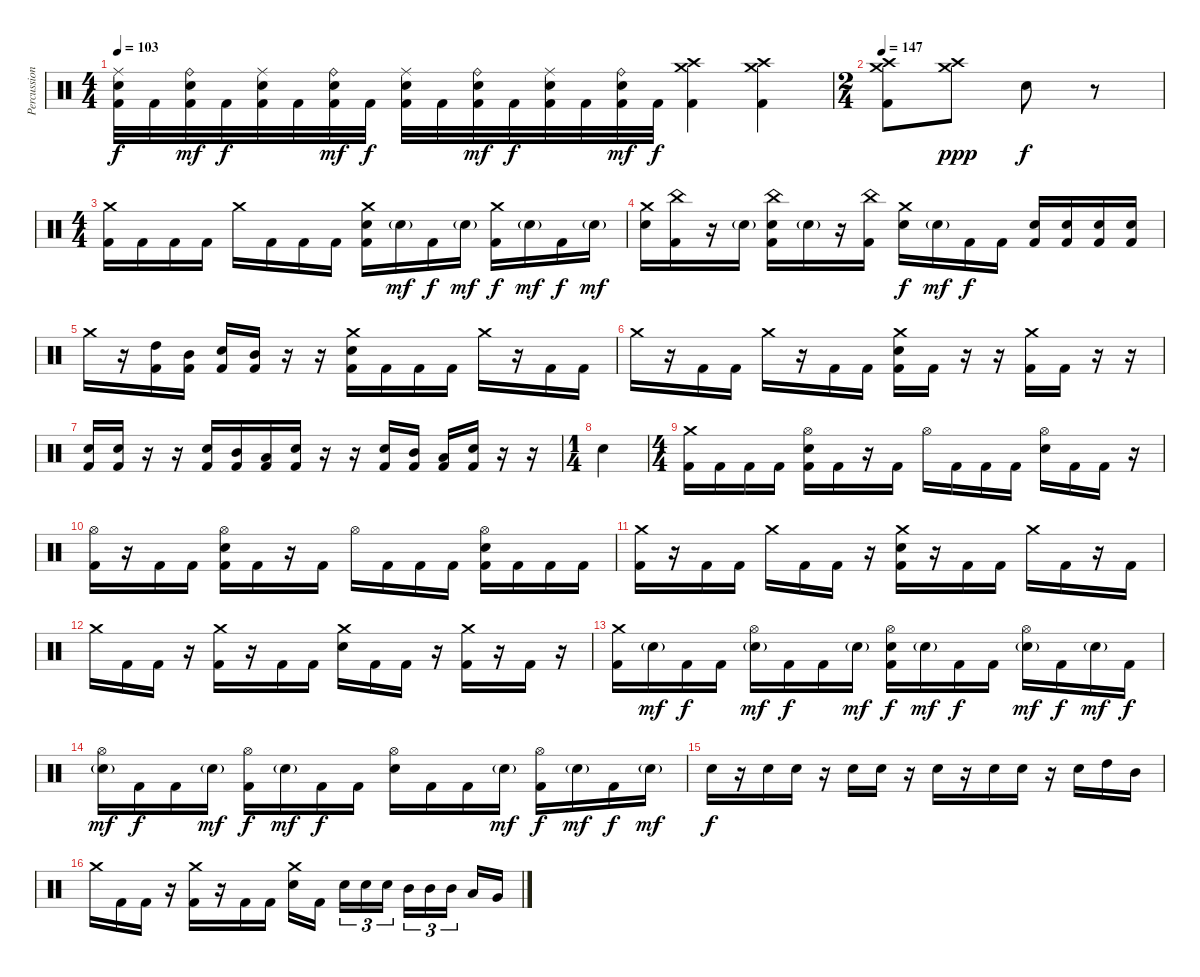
\track ("Percussion" "Percussion") {instrument percussion}
\staff {score}
\articulation defaults
\ts (4 4)
\tempo 103
\clef neutral
\ks c
("Ride (middle)" "Electric Snare (hit)" "Kick (hit) 2").32{dy f} "Kick (hit) 2".32 ("Ride (bell)" "Electric Snare (hit)" "Kick (hit) 2").32{dy mf} "Kick (hit) 2".32{dy f} ("Ride (middle)" "Electric Snare (hit)" "Kick (hit) 2").32 "Kick (hit) 2".32 ("Ride (bell)" "Electric Snare (hit)" "Kick (hit) 2").32{dy mf} "Kick (hit) 2".32{dy f} ("Ride (middle)" "Electric Snare (hit)" "Kick (hit) 2").32 "Kick (hit) 2".32 ("Ride (bell)" "Electric Snare (hit)" "Kick (hit) 2").32{dy mf} "Kick (hit) 2".32{dy f} ("Ride (middle)" "Electric Snare (hit)" "Kick (hit) 2").32 "Kick (hit) 2".32 ("Ride (bell)" "Electric Snare (hit)" "Kick (hit) 2").32{dy mf} "Kick (hit) 2".32{dy f} ("Crash medium (hit)" "Crash high (hit)" "Kick (hit) 2").4 ("Crash medium (hit)" "Crash high (hit)" "Kick (hit) 2").4 |
\ts (2 4)
\tempo 147
("Crash medium (hit)" "Crash high (hit)" "Kick (hit) 2").8 ("Crash medium (hit)" "Crash high (hit)").8{dy ppp} "Electric Snare (hit)".8{dy f} r.8 |
\ts (4 4)
("Crash medium (hit)" "Kick (hit) 2").16 "Kick (hit) 2".16 "Kick (hit) 2".16 "Kick (hit) 2".16 "Crash medium (hit)".16 "Kick (hit) 2".16 "Kick (hit) 2".16 "Kick (hit) 2".16 ("Crash medium (hit)" "Electric Snare (hit)" "Kick (hit) 2").16 "Electric Snare (hit)"{g}.16{dy mf} "Kick (hit) 2".16{dy f} "Electric Snare (hit)"{g}.16{dy mf} ("Crash medium (hit)" "Kick (hit) 2").16{dy f} "Electric Snare (hit)"{g}.16{dy mf} "Kick (hit) 2".16{dy f} "Electric Snare (hit)"{g}.16{dy mf} |
("Crash medium (hit)" "Electric Snare (hit)").16 ("China (hit)" "Kick (hit) 2").16 r.16 "Electric Snare (hit)"{g}.16 ("China (hit)" "Electric Snare (hit)" "Kick (hit) 2").16 "Electric Snare (hit)"{g}.16 r.16 ("China (hit)" "Kick (hit) 2").16 ("Crash medium (hit)" "Electric Snare (hit)").16{dy f} "Electric Snare (hit)"{g}.16{dy mf} "Kick (hit) 2".16{dy f} "Kick (hit) 2".16 ("Electric Snare (hit)" "Kick (hit) 2").16 ("Electric Snare (hit)" "Kick (hit) 2").16 ("Electric Snare (hit)" "Kick (hit) 2").16 ("Electric Snare (hit)" "Kick (hit) 2").16 |
"Crash medium (hit)".16 r.16 ("High Tom (hit)" "Kick (hit) 2").16 ("Mid Tom (hit)" "Kick (hit) 2").16 ("Electric Snare (hit)" "Kick (hit) 2").16 ("Mid Tom (hit)" "Kick (hit) 2").16 r.16 r.16 ("Crash medium (hit)" "Electric Snare (hit)" "Kick (hit) 2").16 "Kick (hit) 2".16 "Kick (hit) 2".16 "Kick (hit) 2".16 "Crash medium (hit)".16 r.16 "Kick (hit) 2".16 "Kick (hit) 2".16 |
"Crash medium (hit)".16 r.16 "Kick (hit) 2".16 "Kick (hit) 2".16 "Crash medium (hit)".16 r.16 "Kick (hit) 2".16 "Kick (hit) 2".16 ("Crash medium (hit)" "Electric Snare (hit)" "Kick (hit) 2").16 "Kick (hit) 2".16 r.16 r.16 ("Crash medium (hit)" "Kick (hit) 2").16 "Kick (hit) 2".16 r.16 r.16 |
("Electric Snare (hit)" "Kick (hit) 2").16 ("Electric Snare (hit)" "Kick (hit) 2").16 r.16 r.16 ("Electric Snare (hit)" "Kick (hit) 2").16 ("Mid Tom (hit)" "Kick (hit) 2").16 ("Low Tom (hit)" "Kick (hit) 2").16 ("Electric Snare (hit)" "Kick (hit) 2").16 r.16 r.16 ("Electric Snare (hit)" "Kick (hit) 2").16 ("Mid Tom (hit)" "Kick (hit) 2").16 ("Low Tom (hit)" "Kick (hit) 2").16 ("Electric Snare (hit)" "Kick (hit) 2").16 r.16 r.16 |
\ts (1 4)
"Electric Snare (hit)".4 |
\ts (4 4)
("Crash medium (hit)" "Kick (hit) 2").16 "Kick (hit) 2".16 "Kick (hit) 2".16 "Kick (hit) 2".16 ("Hi-Hat (open)" "Electric Snare (hit)" "Kick (hit) 2").16 "Kick (hit) 2".16 r.16 "Kick (hit) 2".16 "Hi-Hat (open)".16 "Kick (hit) 2".16 "Kick (hit) 2".16 "Kick (hit) 2".16 ("Hi-Hat (open)" "Electric Snare (hit)").16 "Kick (hit) 2".16 "Kick (hit) 2".16 r.16 |
("Hi-Hat (open)" "Kick (hit) 2").16 r.16 "Kick (hit) 2".16 "Kick (hit) 2".16 ("Hi-Hat (open)" "Electric Snare (hit)" "Kick (hit) 2").16 "Kick (hit) 2".16 r.16 "Kick (hit) 2".16 "Hi-Hat (open)".16 "Kick (hit) 2".16 "Kick (hit) 2".16 "Kick (hit) 2".16 ("Hi-Hat (open)" "Electric Snare (hit)" "Kick (hit) 2").16 "Kick (hit) 2".16 "Kick (hit) 2".16 "Kick (hit) 2".16 |
("Crash medium (hit)" "Kick (hit) 2").16 r.16 "Kick (hit) 2".16 "Kick (hit) 2".16 "Crash medium (hit)".16 "Kick (hit) 2".16 "Kick (hit) 2".16 r.16 ("Crash medium (hit)" "Electric Snare (hit)" "Kick (hit) 2").16 r.16 "Kick (hit) 2".16 "Kick (hit) 2".16 "Crash medium (hit)".16 "Kick (hit) 2".16 r.16 "Kick (hit) 2".16 |
"Crash medium (hit)".16 "Kick (hit) 2".16 "Kick (hit) 2".16 r.16 ("Crash medium (hit)" "Kick (hit) 2").16 r.16 "Kick (hit) 2".16 "Kick (hit) 2".16 ("Crash medium (hit)" "Electric Snare (hit)").16 "Kick (hit) 2".16 "Kick (hit) 2".16 r.16 ("Crash medium (hit)" "Kick (hit) 2").16 r.16 "Kick (hit) 2".16 r.16 |
("Crash medium (hit)" "Kick (hit) 2").16 "Electric Snare (hit)"{g}.16{dy mf} "Kick (hit) 2".16{dy f} "Kick (hit) 2".16 ("Hi-Hat (open)" "Electric Snare (hit)"{g}).16{dy mf} "Kick (hit) 2".16{dy f} "Kick (hit) 2".16 "Electric Snare (hit)"{g}.16{dy mf} ("Hi-Hat (open)" "Electric Snare (hit)" "Kick (hit) 2").16{dy f} "Electric Snare (hit)"{g}.16{dy mf} "Kick (hit) 2".16{dy f} "Kick (hit) 2".16 ("Hi-Hat (open)" "Electric Snare (hit)"{g}).16{dy mf} "Kick (hit) 2".16{dy f} "Electric Snare (hit)"{g}.16{dy mf} "Kick (hit) 2".16{dy f} |
("Hi-Hat (open)" "Electric Snare (hit)"{g}).16{dy mf} "Kick (hit) 2".16{dy f} "Kick (hit) 2".16 "Electric Snare (hit)"{g}.16{dy mf} ("Hi-Hat (open)" "Kick (hit) 2").16{dy f} "Electric Snare (hit)"{g}.16{dy mf} "Kick (hit) 2".16{dy f} "Kick (hit) 2".16 ("Hi-Hat (open)" "Electric Snare (hit)").16 "Kick (hit) 2".16 "Kick (hit) 2".16 "Electric Snare (hit)"{g}.16{dy mf} ("Hi-Hat (open)" "Kick (hit) 2").16{dy f} "Electric Snare (hit)"{g}.16{dy mf} "Kick (hit) 2".16{dy f} "Electric Snare (hit)"{g}.16{dy mf} |
"Electric Snare (hit)".16{dy f} r.16 "Electric Snare (hit)".16 "Electric Snare (hit)".16 r.16 "Electric Snare (hit)".16 "Electric Snare (hit)".16 r.16 "Electric Snare (hit)".16 r.16 "Electric Snare (hit)".16 "Electric Snare (hit)".16 r.16 "Electric Snare (hit)".16 "High Tom (hit)".16 "Mid Tom (hit)".16 |
"Crash medium (hit)".16 "Kick (hit) 2".16 "Kick (hit) 2".16 r.16 ("Crash medium (hit)" "Kick (hit) 2").16 r.16 "Kick (hit) 2".16 "Kick (hit) 2".16 ("Crash medium (hit)" "Electric Snare (hit)").16 "Kick (hit) 2".16{beam splitsecondary} "Electric Snare (hit)".16{tu (3 2)} "Electric Snare (hit)".16{tu (3 2)} "Electric Snare (hit)".16{tu (3 2)} "Mid Tom (hit)".16{tu (3 2)} "Mid Tom (hit)".16{tu (3 2)} "Mid Tom (hit)".16{tu (3 2) beam splitsecondary} "Low Tom (hit)".16 "Very Low Tom (hit)".16
